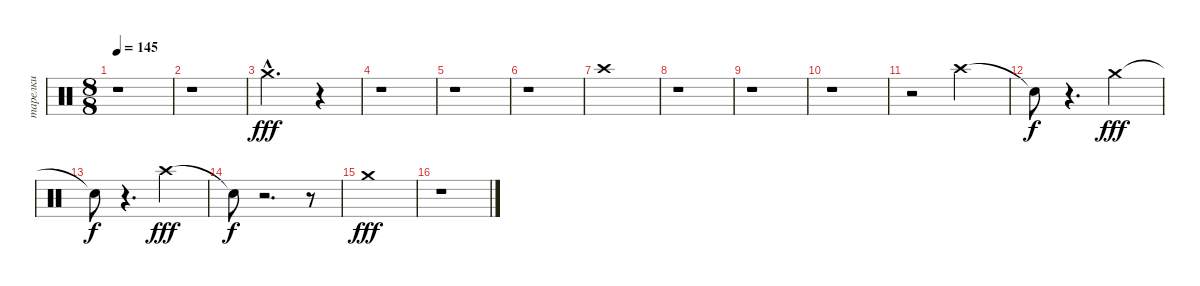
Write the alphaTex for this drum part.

\track ("тарелки" "тарелки") {instrument percussion}
\staff {score}
\articulation defaults
\ts (8 8)
\tempo 145
\clef neutral
\ks c
r.1{dy fff} |
r.1 |
"Crash medium (hit)"{hac}.2{d} r.4 |
r.1 |
r.1 |
r.1 |
"Crash high (hit)".1 |
r.1 |
r.1 |
r.1 |
r.2 "Crash high (hit)".2 |
"Snare (hit)"{t}.8{dy f} r.4{d} "Crash medium (hit)".2{dy fff} |
"Snare (hit)"{t}.8{dy f} r.4{d} "Crash high (hit)".2{dy fff} |
"Snare (hit)"{t}.8{dy f} r.2{d} r.8 |
"Crash medium (hit)".1{dy fff} |
r.1
